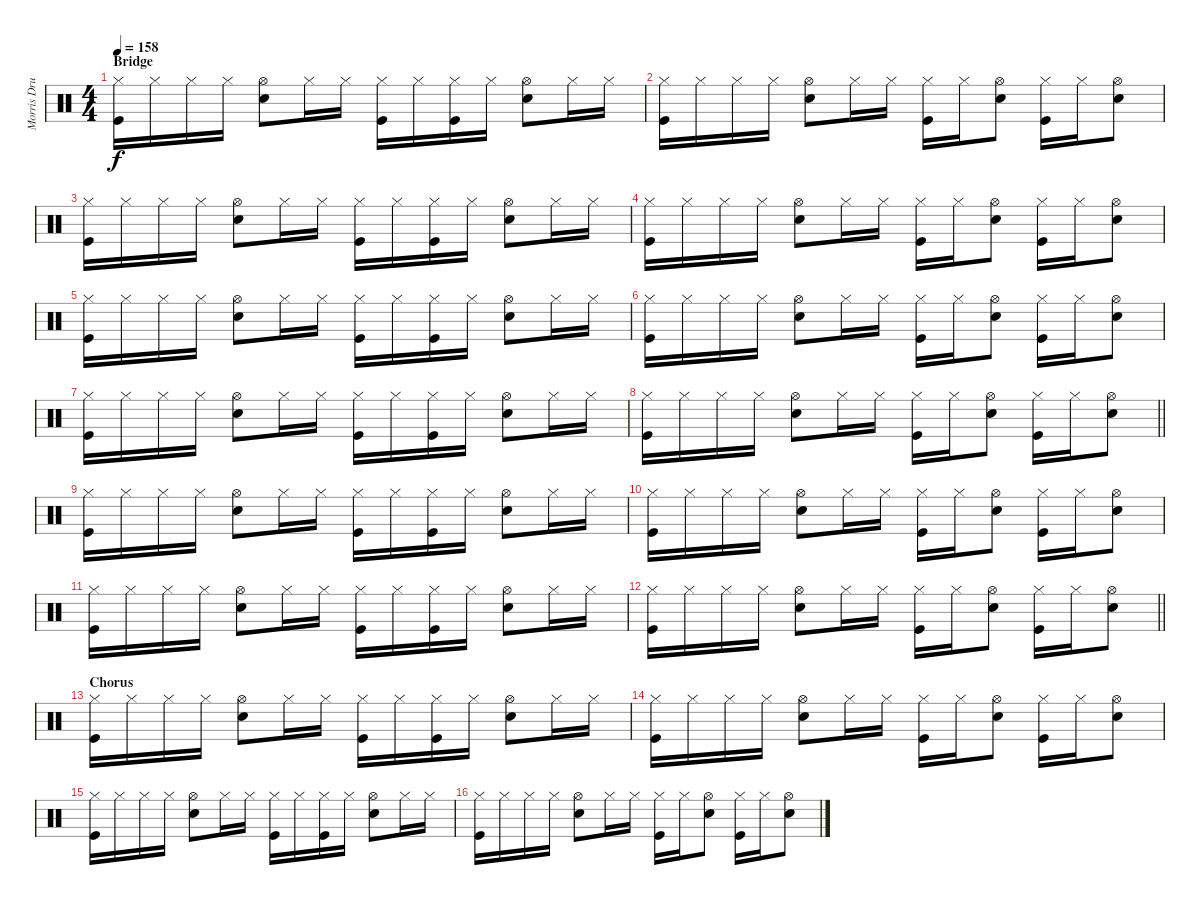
\track ("Morris Drums" "Morris Dru") {instrument percussion}
\staff {score}
\articulation defaults
\ts (4 4)
\section ("" "Bridge")
\tempo 158
\clef neutral
\ks c
("Hi-Hat (closed)" "Kick (hit)").16{dy f} "Hi-Hat (closed)".16 "Hi-Hat (closed)".16 "Hi-Hat (closed)".16 ("Hi-Hat (open)" "Snare (hit) 2").8 "Hi-Hat (closed)".16 "Hi-Hat (closed)".16 ("Hi-Hat (closed)" "Kick (hit)").16 "Hi-Hat (closed)".16 ("Hi-Hat (closed)" "Kick (hit)").16 "Hi-Hat (closed)".16 ("Hi-Hat (open)" "Snare (hit) 2").8 "Hi-Hat (closed)".16 "Hi-Hat (closed)".16 |
("Hi-Hat (closed)" "Kick (hit)").16 "Hi-Hat (closed)".16 "Hi-Hat (closed)".16 "Hi-Hat (closed)".16 ("Hi-Hat (open)" "Snare (hit) 2").8 "Hi-Hat (closed)".16 "Hi-Hat (closed)".16 ("Hi-Hat (closed)" "Kick (hit)").16 "Hi-Hat (closed)".16 ("Hi-Hat (open)" "Snare (hit) 2").8 ("Hi-Hat (closed)" "Kick (hit)").16 "Hi-Hat (closed)".16 ("Hi-Hat (open)" "Snare (hit) 2").8 |
("Hi-Hat (closed)" "Kick (hit)").16 "Hi-Hat (closed)".16 "Hi-Hat (closed)".16 "Hi-Hat (closed)".16 ("Hi-Hat (open)" "Snare (hit) 2").8 "Hi-Hat (closed)".16 "Hi-Hat (closed)".16 ("Hi-Hat (closed)" "Kick (hit)").16 "Hi-Hat (closed)".16 ("Hi-Hat (closed)" "Kick (hit)").16 "Hi-Hat (closed)".16 ("Hi-Hat (open)" "Snare (hit) 2").8 "Hi-Hat (closed)".16 "Hi-Hat (closed)".16 |
("Hi-Hat (closed)" "Kick (hit)").16 "Hi-Hat (closed)".16 "Hi-Hat (closed)".16 "Hi-Hat (closed)".16 ("Hi-Hat (open)" "Snare (hit) 2").8 "Hi-Hat (closed)".16 "Hi-Hat (closed)".16 ("Hi-Hat (closed)" "Kick (hit)").16 "Hi-Hat (closed)".16 ("Hi-Hat (open)" "Snare (hit) 2").8 ("Hi-Hat (closed)" "Kick (hit)").16 "Hi-Hat (closed)".16 ("Hi-Hat (open)" "Snare (hit) 2").8 |
("Hi-Hat (closed)" "Kick (hit)").16 "Hi-Hat (closed)".16 "Hi-Hat (closed)".16 "Hi-Hat (closed)".16 ("Hi-Hat (open)" "Snare (hit) 2").8 "Hi-Hat (closed)".16 "Hi-Hat (closed)".16 ("Hi-Hat (closed)" "Kick (hit)").16 "Hi-Hat (closed)".16 ("Hi-Hat (closed)" "Kick (hit)").16 "Hi-Hat (closed)".16 ("Hi-Hat (open)" "Snare (hit) 2").8 "Hi-Hat (closed)".16 "Hi-Hat (closed)".16 |
("Hi-Hat (closed)" "Kick (hit)").16 "Hi-Hat (closed)".16 "Hi-Hat (closed)".16 "Hi-Hat (closed)".16 ("Hi-Hat (open)" "Snare (hit) 2").8 "Hi-Hat (closed)".16 "Hi-Hat (closed)".16 ("Hi-Hat (closed)" "Kick (hit)").16 "Hi-Hat (closed)".16 ("Hi-Hat (open)" "Snare (hit) 2").8 ("Hi-Hat (closed)" "Kick (hit)").16 "Hi-Hat (closed)".16 ("Hi-Hat (open)" "Snare (hit) 2").8 |
("Hi-Hat (closed)" "Kick (hit)").16 "Hi-Hat (closed)".16 "Hi-Hat (closed)".16 "Hi-Hat (closed)".16 ("Hi-Hat (open)" "Snare (hit) 2").8 "Hi-Hat (closed)".16 "Hi-Hat (closed)".16 ("Hi-Hat (closed)" "Kick (hit)").16 "Hi-Hat (closed)".16 ("Hi-Hat (closed)" "Kick (hit)").16 "Hi-Hat (closed)".16 ("Hi-Hat (open)" "Snare (hit) 2").8 "Hi-Hat (closed)".16 "Hi-Hat (closed)".16 |
\barLineRight lightlight
("Hi-Hat (closed)" "Kick (hit)").16 "Hi-Hat (closed)".16 "Hi-Hat (closed)".16 "Hi-Hat (closed)".16 ("Hi-Hat (open)" "Snare (hit) 2").8 "Hi-Hat (closed)".16 "Hi-Hat (closed)".16 ("Hi-Hat (closed)" "Kick (hit)").16 "Hi-Hat (closed)".16 ("Hi-Hat (open)" "Snare (hit) 2").8 ("Hi-Hat (closed)" "Kick (hit)").16 "Hi-Hat (closed)".16 ("Hi-Hat (open)" "Snare (hit) 2").8 |
("Hi-Hat (closed)" "Kick (hit)").16 "Hi-Hat (closed)".16 "Hi-Hat (closed)".16 "Hi-Hat (closed)".16 ("Hi-Hat (open)" "Snare (hit) 2").8 "Hi-Hat (closed)".16 "Hi-Hat (closed)".16 ("Hi-Hat (closed)" "Kick (hit)").16 "Hi-Hat (closed)".16 ("Hi-Hat (closed)" "Kick (hit)").16 "Hi-Hat (closed)".16 ("Hi-Hat (open)" "Snare (hit) 2").8 "Hi-Hat (closed)".16 "Hi-Hat (closed)".16 |
("Hi-Hat (closed)" "Kick (hit)").16 "Hi-Hat (closed)".16 "Hi-Hat (closed)".16 "Hi-Hat (closed)".16 ("Hi-Hat (open)" "Snare (hit) 2").8 "Hi-Hat (closed)".16 "Hi-Hat (closed)".16 ("Hi-Hat (closed)" "Kick (hit)").16 "Hi-Hat (closed)".16 ("Hi-Hat (open)" "Snare (hit) 2").8 ("Hi-Hat (closed)" "Kick (hit)").16 "Hi-Hat (closed)".16 ("Hi-Hat (open)" "Snare (hit) 2").8 |
("Hi-Hat (closed)" "Kick (hit)").16 "Hi-Hat (closed)".16 "Hi-Hat (closed)".16 "Hi-Hat (closed)".16 ("Hi-Hat (open)" "Snare (hit) 2").8 "Hi-Hat (closed)".16 "Hi-Hat (closed)".16 ("Hi-Hat (closed)" "Kick (hit)").16 "Hi-Hat (closed)".16 ("Hi-Hat (closed)" "Kick (hit)").16 "Hi-Hat (closed)".16 ("Hi-Hat (open)" "Snare (hit) 2").8 "Hi-Hat (closed)".16 "Hi-Hat (closed)".16 |
\barLineRight lightlight
("Hi-Hat (closed)" "Kick (hit)").16 "Hi-Hat (closed)".16 "Hi-Hat (closed)".16 "Hi-Hat (closed)".16 ("Hi-Hat (open)" "Snare (hit) 2").8 "Hi-Hat (closed)".16 "Hi-Hat (closed)".16 ("Hi-Hat (closed)" "Kick (hit)").16 "Hi-Hat (closed)".16 ("Hi-Hat (open)" "Snare (hit) 2").8 ("Hi-Hat (closed)" "Kick (hit)").16 "Hi-Hat (closed)".16 ("Hi-Hat (open)" "Snare (hit) 2").8 |
\section ("" "Chorus")
("Hi-Hat (closed)" "Kick (hit)").16 "Hi-Hat (closed)".16 "Hi-Hat (closed)".16 "Hi-Hat (closed)".16 ("Hi-Hat (open)" "Snare (hit) 2").8 "Hi-Hat (closed)".16 "Hi-Hat (closed)".16 ("Hi-Hat (closed)" "Kick (hit)").16 "Hi-Hat (closed)".16 ("Hi-Hat (closed)" "Kick (hit)").16 "Hi-Hat (closed)".16 ("Hi-Hat (open)" "Snare (hit) 2").8 "Hi-Hat (closed)".16 "Hi-Hat (closed)".16 |
("Hi-Hat (closed)" "Kick (hit)").16 "Hi-Hat (closed)".16 "Hi-Hat (closed)".16 "Hi-Hat (closed)".16 ("Hi-Hat (open)" "Snare (hit) 2").8 "Hi-Hat (closed)".16 "Hi-Hat (closed)".16 ("Hi-Hat (closed)" "Kick (hit)").16 "Hi-Hat (closed)".16 ("Hi-Hat (open)" "Snare (hit) 2").8 ("Hi-Hat (closed)" "Kick (hit)").16 "Hi-Hat (closed)".16 ("Hi-Hat (open)" "Snare (hit) 2").8 |
("Hi-Hat (closed)" "Kick (hit)").16 "Hi-Hat (closed)".16 "Hi-Hat (closed)".16 "Hi-Hat (closed)".16 ("Hi-Hat (open)" "Snare (hit) 2").8 "Hi-Hat (closed)".16 "Hi-Hat (closed)".16 ("Hi-Hat (closed)" "Kick (hit)").16 "Hi-Hat (closed)".16 ("Hi-Hat (closed)" "Kick (hit)").16 "Hi-Hat (closed)".16 ("Hi-Hat (open)" "Snare (hit) 2").8 "Hi-Hat (closed)".16 "Hi-Hat (closed)".16 |
("Hi-Hat (closed)" "Kick (hit)").16 "Hi-Hat (closed)".16 "Hi-Hat (closed)".16 "Hi-Hat (closed)".16 ("Hi-Hat (open)" "Snare (hit) 2").8 "Hi-Hat (closed)".16 "Hi-Hat (closed)".16 ("Hi-Hat (closed)" "Kick (hit)").16 "Hi-Hat (closed)".16 ("Hi-Hat (open)" "Snare (hit) 2").8 ("Hi-Hat (closed)" "Kick (hit)").16 "Hi-Hat (closed)".16 ("Hi-Hat (open)" "Snare (hit) 2").8
